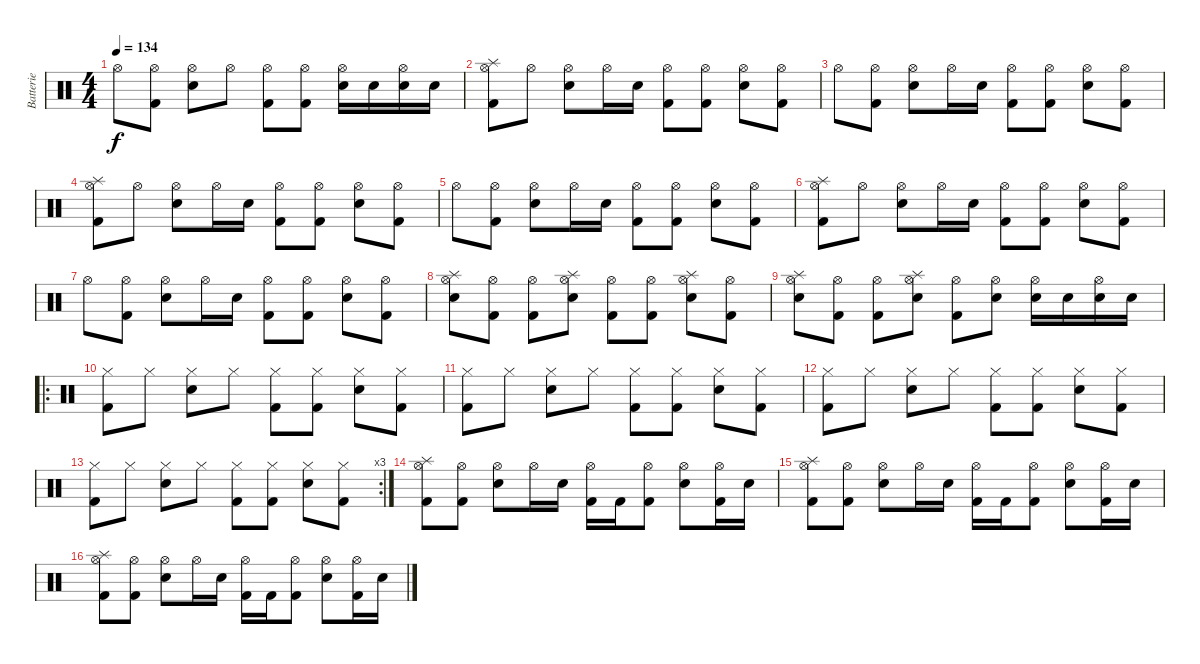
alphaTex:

\track ("Batterie" "Batterie") {instrument percussion}
\staff {score}
\articulation defaults
\ts (4 4)
\tempo 134
\clef neutral
\ks c "Hi-Hat (open)".8{dy f}
("Hi-Hat (open)" "Kick (hit) 2").8 ("Hi-Hat (open)" "Snare (hit) 2").8 "Hi-Hat (open)".8 ("Hi-Hat (open)" "Kick (hit) 2").8 ("Hi-Hat (open)" "Kick (hit) 2").8 ("Hi-Hat (open)" "Snare (hit) 2").16 "Snare (hit) 2".16 ("Hi-Hat (open)" "Snare (hit) 2").16 "Snare (hit) 2".16 |
("Splash (hit)" "Hi-Hat (open)" "Kick (hit) 2").8 "Hi-Hat (open)".8 ("Hi-Hat (open)" "Snare (hit) 2").8 "Hi-Hat (open)".16 "Snare (hit) 2".16 ("Hi-Hat (open)" "Kick (hit) 2").8 ("Hi-Hat (open)" "Kick (hit) 2").8 ("Hi-Hat (open)" "Snare (hit) 2").8 ("Hi-Hat (open)" "Kick (hit) 2").8 |
"Hi-Hat (open)".8 ("Hi-Hat (open)" "Kick (hit) 2").8 ("Hi-Hat (open)" "Snare (hit) 2").8 "Hi-Hat (open)".16 "Snare (hit) 2".16 ("Hi-Hat (open)" "Kick (hit) 2").8 ("Hi-Hat (open)" "Kick (hit) 2").8 ("Hi-Hat (open)" "Snare (hit) 2").8 ("Hi-Hat (open)" "Kick (hit) 2").8 |
("Splash (hit)" "Hi-Hat (open)" "Kick (hit) 2").8 "Hi-Hat (open)".8 ("Hi-Hat (open)" "Snare (hit) 2").8 "Hi-Hat (open)".16 "Snare (hit) 2".16 ("Hi-Hat (open)" "Kick (hit) 2").8 ("Hi-Hat (open)" "Kick (hit) 2").8 ("Hi-Hat (open)" "Snare (hit) 2").8 ("Hi-Hat (open)" "Kick (hit) 2").8 |
"Hi-Hat (open)".8 ("Hi-Hat (open)" "Kick (hit) 2").8 ("Hi-Hat (open)" "Snare (hit) 2").8 "Hi-Hat (open)".16 "Snare (hit) 2".16 ("Hi-Hat (open)" "Kick (hit) 2").8 ("Hi-Hat (open)" "Kick (hit) 2").8 ("Hi-Hat (open)" "Snare (hit) 2").8 ("Hi-Hat (open)" "Kick (hit) 2").8 |
("Splash (hit)" "Hi-Hat (open)" "Kick (hit) 2").8 "Hi-Hat (open)".8 ("Hi-Hat (open)" "Snare (hit) 2").8 "Hi-Hat (open)".16 "Snare (hit) 2".16 ("Hi-Hat (open)" "Kick (hit) 2").8 ("Hi-Hat (open)" "Kick (hit) 2").8 ("Hi-Hat (open)" "Snare (hit) 2").8 ("Hi-Hat (open)" "Kick (hit) 2").8 |
"Hi-Hat (open)".8 ("Hi-Hat (open)" "Kick (hit) 2").8 ("Hi-Hat (open)" "Snare (hit) 2").8 "Hi-Hat (open)".16 "Snare (hit) 2".16 ("Hi-Hat (open)" "Kick (hit) 2").8 ("Hi-Hat (open)" "Kick (hit) 2").8 ("Hi-Hat (open)" "Snare (hit) 2").8 ("Hi-Hat (open)" "Kick (hit) 2").8 |
("Splash (hit)" "Hi-Hat (open)" "Snare (hit) 2").8 ("Hi-Hat (open)" "Kick (hit) 2").8 ("Hi-Hat (open)" "Kick (hit) 2").8 ("Hi-Hat (open)" "Splash (hit)" "Snare (hit) 2").8 ("Hi-Hat (open)" "Kick (hit) 2").8 ("Hi-Hat (open)" "Kick (hit) 2").8 ("Hi-Hat (open)" "Splash (hit)" "Snare (hit) 2").8 ("Hi-Hat (open)" "Kick (hit) 2").8 |
("Splash (hit)" "Hi-Hat (open)" "Snare (hit) 2").8 ("Hi-Hat (open)" "Kick (hit) 2").8 ("Hi-Hat (open)" "Kick (hit) 2").8 ("Splash (hit)" "Hi-Hat (open)" "Snare (hit) 2").8 ("Hi-Hat (open)" "Kick (hit) 2").8 ("Hi-Hat (open)" "Snare (hit) 2").8 ("Hi-Hat (open)" "Snare (hit) 2").16 "Snare (hit) 2".16 ("Hi-Hat (open)" "Snare (hit) 2").16 "Snare (hit) 2".16 |
\ro
("Hi-Hat (closed)" "Kick (hit) 2").8 "Hi-Hat (closed)".8 ("Hi-Hat (closed)" "Snare (hit) 2").8 "Hi-Hat (closed)".8 ("Hi-Hat (closed)" "Kick (hit) 2").8 ("Hi-Hat (closed)" "Kick (hit) 2").8 ("Hi-Hat (closed)" "Snare (hit) 2").8 ("Hi-Hat (closed)" "Kick (hit) 2").8 |
("Hi-Hat (closed)" "Kick (hit) 2").8 "Hi-Hat (closed)".8 ("Hi-Hat (closed)" "Snare (hit) 2").8 "Hi-Hat (closed)".8 ("Hi-Hat (closed)" "Kick (hit) 2").8 ("Hi-Hat (closed)" "Kick (hit) 2").8 ("Hi-Hat (closed)" "Snare (hit) 2").8 ("Hi-Hat (closed)" "Kick (hit) 2").8 |
("Hi-Hat (closed)" "Kick (hit) 2").8 "Hi-Hat (closed)".8 ("Hi-Hat (closed)" "Snare (hit) 2").8 "Hi-Hat (closed)".8 ("Hi-Hat (closed)" "Kick (hit) 2").8 ("Hi-Hat (closed)" "Kick (hit) 2").8 ("Hi-Hat (closed)" "Snare (hit) 2").8 ("Hi-Hat (closed)" "Kick (hit) 2").8 |
\rc 3
("Hi-Hat (closed)" "Kick (hit) 2").8 "Hi-Hat (closed)".8 ("Hi-Hat (closed)" "Snare (hit) 2").8 "Hi-Hat (closed)".8 ("Hi-Hat (closed)" "Kick (hit) 2").8 ("Hi-Hat (closed)" "Kick (hit) 2").8 ("Hi-Hat (closed)" "Snare (hit) 2").8 ("Hi-Hat (closed)" "Kick (hit) 2").8 |
("Splash (hit)" "Hi-Hat (open)" "Kick (hit) 2").8 ("Hi-Hat (open)" "Kick (hit) 2").8 ("Hi-Hat (open)" "Snare (hit) 2").8 "Hi-Hat (open)".16 "Snare (hit) 2".16 ("Hi-Hat (open)" "Kick (hit) 2").16 "Kick (hit) 2".16 ("Hi-Hat (open)" "Kick (hit) 2").8 ("Hi-Hat (open)" "Snare (hit) 2").8 ("Hi-Hat (open)" "Kick (hit) 2").16 "Snare (hit) 2".16 |
("Splash (hit)" "Hi-Hat (open)" "Kick (hit) 2").8 ("Hi-Hat (open)" "Kick (hit) 2").8 ("Hi-Hat (open)" "Snare (hit) 2").8 "Hi-Hat (open)".16 "Snare (hit) 2".16 ("Hi-Hat (open)" "Kick (hit) 2").16 "Kick (hit) 2".16 ("Hi-Hat (open)" "Kick (hit) 2").8 ("Hi-Hat (open)" "Snare (hit) 2").8 ("Hi-Hat (open)" "Kick (hit) 2").16 "Snare (hit) 2".16 |
("Splash (hit)" "Hi-Hat (open)" "Kick (hit) 2").8 ("Hi-Hat (open)" "Kick (hit) 2").8 ("Hi-Hat (open)" "Snare (hit) 2").8 "Hi-Hat (open)".16 "Snare (hit) 2".16 ("Hi-Hat (open)" "Kick (hit) 2").16 "Kick (hit) 2".16 ("Hi-Hat (open)" "Kick (hit) 2").8 ("Hi-Hat (open)" "Snare (hit) 2").8 ("Hi-Hat (open)" "Kick (hit) 2").16 "Snare (hit) 2".16
